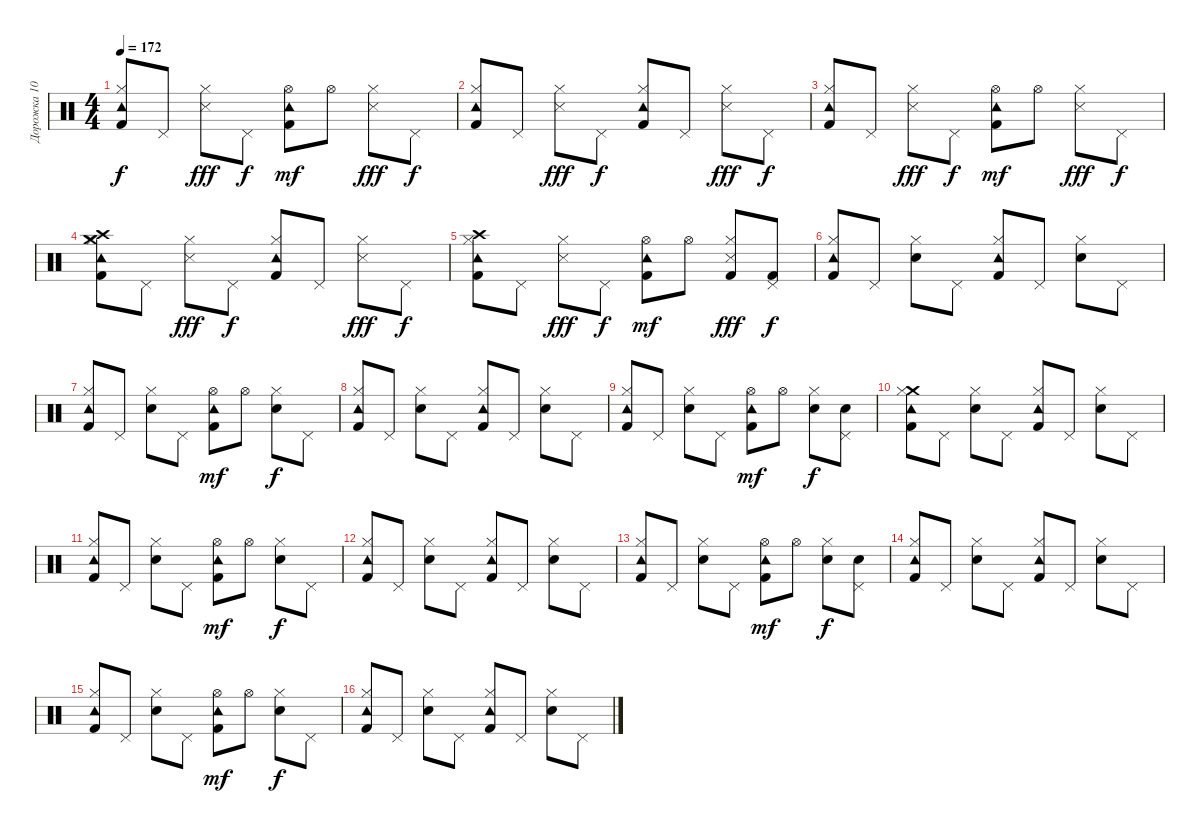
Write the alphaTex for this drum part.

\track ("Дорожка 10" "Дорожка 10") {instrument percussion}
\staff {score}
\articulation defaults
\ts (4 4)
\tempo 172
\clef neutral
\ks c
("Kick (hit) 2" "Hi-Hat (closed)" "Tambourine (hit)").8{dy f} "Pedal Hi-Hat (hit)".8 ("Hi-Hat (closed)" "Snare (side stick) 3").8{dy fff} "Pedal Hi-Hat (hit)".8{dy f} ("Tambourine (hit)" "Hi-Hat (open)" "Kick (hit) 2").8{dy mf} "Hi-Hat (open)".8 ("Hi-Hat (closed)" "Snare (side stick) 3").8{dy fff} "Pedal Hi-Hat (hit)".8{dy f} |
("Tambourine (hit)" "Kick (hit) 2" "Hi-Hat (closed)").8 "Pedal Hi-Hat (hit)".8 ("Hi-Hat (closed)" "Snare (side stick) 3").8{dy fff} "Pedal Hi-Hat (hit)".8{dy f} ("Tambourine (hit)" "Hi-Hat (closed)" "Kick (hit) 2").8 "Pedal Hi-Hat (hit)".8 ("Hi-Hat (closed)" "Snare (side stick) 3").8{dy fff} "Pedal Hi-Hat (hit)".8{dy f} |
("Tambourine (hit)" "Kick (hit) 2" "Hi-Hat (closed)").8 "Pedal Hi-Hat (hit)".8 ("Hi-Hat (closed)" "Snare (side stick) 3").8{dy fff} "Pedal Hi-Hat (hit)".8{dy f} ("Hi-Hat (open)" "Kick (hit) 2" "Tambourine (hit)").8{dy mf} "Hi-Hat (open)".8 ("Snare (side stick) 3" "Hi-Hat (closed)").8{dy fff} "Pedal Hi-Hat (hit)".8{dy f} |
("Kick (hit) 2" "Hi-Hat (closed)" "Crash high (hit)" "Tambourine (hit)" "Crash medium (hit)").8 "Pedal Hi-Hat (hit)".8 ("Hi-Hat (closed)" "Snare (side stick) 3").8{dy fff} "Pedal Hi-Hat (hit)".8{dy f} ("Tambourine (hit)" "Hi-Hat (closed)" "Kick (hit) 2").8 "Pedal Hi-Hat (hit)".8 ("Snare (side stick) 3" "Hi-Hat (closed)").8{dy fff} "Pedal Hi-Hat (hit)".8{dy f} |
("Crash high (hit)" "Tambourine (hit)" "Hi-Hat (closed)" "Kick (hit) 2").8 "Pedal Hi-Hat (hit)".8 ("Snare (side stick) 3" "Hi-Hat (closed)").8{dy fff} "Pedal Hi-Hat (hit)".8{dy f} ("Tambourine (hit)" "Hi-Hat (open)" "Kick (hit) 2").8{dy mf} "Hi-Hat (open)".8 ("Hi-Hat (closed)" "Snare (side stick) 3" "Kick (hit) 2").8{dy fff} ("Pedal Hi-Hat (hit)" "Kick (hit) 2").8{dy f} |
("Kick (hit) 2" "Hi-Hat (closed)" "Tambourine (hit)").8 "Pedal Hi-Hat (hit)".8 ("Snare (hit) 2" "Hi-Hat (closed)").8 "Pedal Hi-Hat (hit)".8 ("Kick (hit) 2" "Tambourine (hit)" "Hi-Hat (closed)").8 "Pedal Hi-Hat (hit)".8 ("Snare (hit) 2" "Hi-Hat (closed)").8 "Pedal Hi-Hat (hit)".8 |
("Tambourine (hit)" "Hi-Hat (closed)" "Kick (hit) 2").8 "Pedal Hi-Hat (hit)".8 ("Snare (hit) 2" "Hi-Hat (closed)").8 "Pedal Hi-Hat (hit)".8 ("Hi-Hat (open)" "Kick (hit) 2" "Tambourine (hit)").8{dy mf} "Hi-Hat (open)".8 ("Hi-Hat (closed)" "Snare (hit) 2").8{dy f} "Pedal Hi-Hat (hit)".8 |
("Kick (hit) 2" "Hi-Hat (closed)" "Tambourine (hit)").8 "Pedal Hi-Hat (hit)".8 ("Hi-Hat (closed)" "Snare (hit) 2").8 "Pedal Hi-Hat (hit)".8 ("Hi-Hat (closed)" "Tambourine (hit)" "Kick (hit) 2").8 "Pedal Hi-Hat (hit)".8 ("Hi-Hat (closed)" "Snare (hit) 2").8 "Pedal Hi-Hat (hit)".8 |
("Hi-Hat (closed)" "Kick (hit) 2" "Tambourine (hit)").8 "Pedal Hi-Hat (hit)".8 ("Hi-Hat (closed)" "Snare (hit) 2").8 "Pedal Hi-Hat (hit)".8 ("Hi-Hat (open)" "Kick (hit) 2" "Tambourine (hit)").8{dy mf} "Hi-Hat (open)".8 ("Snare (hit) 2" "Hi-Hat (closed)").8{dy f} ("Pedal Hi-Hat (hit)" "Snare (hit) 2").8 |
("Crash medium (hit)" "Kick (hit) 2" "Hi-Hat (closed)" "Tambourine (hit)").8 "Pedal Hi-Hat (hit)".8 ("Hi-Hat (closed)" "Snare (hit) 2").8 "Pedal Hi-Hat (hit)".8 ("Hi-Hat (closed)" "Tambourine (hit)" "Kick (hit) 2").8 "Pedal Hi-Hat (hit)".8 ("Snare (hit) 2" "Hi-Hat (closed)").8 "Pedal Hi-Hat (hit)".8 |
("Kick (hit) 2" "Hi-Hat (closed)" "Tambourine (hit)").8 "Pedal Hi-Hat (hit)".8 ("Hi-Hat (closed)" "Snare (hit) 2").8 "Pedal Hi-Hat (hit)".8 ("Tambourine (hit)" "Kick (hit) 2" "Hi-Hat (open)").8{dy mf} "Hi-Hat (open)".8 ("Hi-Hat (closed)" "Snare (hit) 2").8{dy f} "Pedal Hi-Hat (hit)".8 |
("Kick (hit) 2" "Hi-Hat (closed)" "Tambourine (hit)").8 "Pedal Hi-Hat (hit)".8 ("Snare (hit) 2" "Hi-Hat (closed)").8 "Pedal Hi-Hat (hit)".8 ("Kick (hit) 2" "Tambourine (hit)" "Hi-Hat (closed)").8 "Pedal Hi-Hat (hit)".8 ("Snare (hit) 2" "Hi-Hat (closed)").8 "Pedal Hi-Hat (hit)".8 |
("Hi-Hat (closed)" "Kick (hit) 2" "Tambourine (hit)").8 "Pedal Hi-Hat (hit)".8 ("Hi-Hat (closed)" "Snare (hit) 2").8 "Pedal Hi-Hat (hit)".8 ("Tambourine (hit)" "Kick (hit) 2" "Hi-Hat (open)").8{dy mf} "Hi-Hat (open)".8 ("Hi-Hat (closed)" "Snare (hit) 2").8{dy f} ("Snare (hit) 2" "Pedal Hi-Hat (hit)").8 |
("Tambourine (hit)" "Hi-Hat (closed)" "Kick (hit) 2").8 "Pedal Hi-Hat (hit)".8 ("Hi-Hat (closed)" "Snare (hit) 2").8 "Pedal Hi-Hat (hit)".8 ("Hi-Hat (closed)" "Tambourine (hit)" "Kick (hit) 2").8 "Pedal Hi-Hat (hit)".8 ("Hi-Hat (closed)" "Snare (hit) 2").8 "Pedal Hi-Hat (hit)".8 |
("Kick (hit) 2" "Hi-Hat (closed)" "Tambourine (hit)").8 "Pedal Hi-Hat (hit)".8 ("Snare (hit) 2" "Hi-Hat (closed)").8 "Pedal Hi-Hat (hit)".8 ("Tambourine (hit)" "Kick (hit) 2" "Hi-Hat (open)").8{dy mf} "Hi-Hat (open)".8 ("Snare (hit) 2" "Hi-Hat (closed)").8{dy f} "Pedal Hi-Hat (hit)".8 |
("Tambourine (hit)" "Hi-Hat (closed)" "Kick (hit) 2").8 "Pedal Hi-Hat (hit)".8 ("Snare (hit) 2" "Hi-Hat (closed)").8 "Pedal Hi-Hat (hit)".8 ("Kick (hit) 2" "Tambourine (hit)" "Hi-Hat (closed)").8 "Pedal Hi-Hat (hit)".8 ("Snare (hit) 2" "Hi-Hat (closed)").8 "Pedal Hi-Hat (hit)".8
